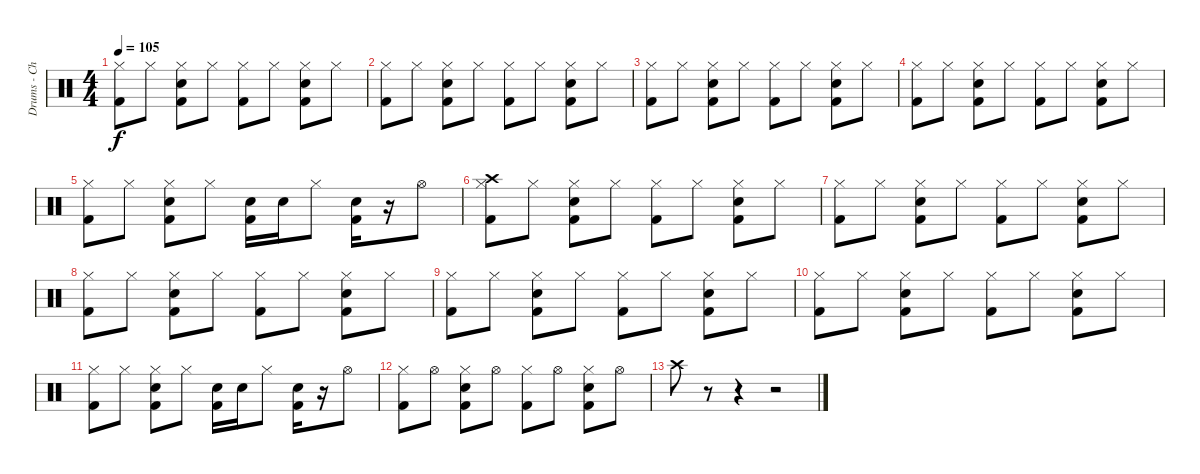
\track ("Drums - Christoph Schneider" "Drums - Ch") {instrument percussion}
\staff {score}
\articulation defaults
\ts (4 4)
\tempo 105
\clef neutral
\ks c
("Hi-Hat (closed)" "Kick (hit) 2").8{dy f} "Hi-Hat (closed)".8 ("Hi-Hat (closed)" "Snare (hit) 2" "Kick (hit) 2").8 "Hi-Hat (closed)".8 ("Hi-Hat (closed)" "Kick (hit) 2").8 "Hi-Hat (closed)".8 ("Hi-Hat (closed)" "Snare (hit) 2" "Kick (hit) 2").8 "Hi-Hat (closed)".8 |
("Hi-Hat (closed)" "Kick (hit) 2").8 "Hi-Hat (closed)".8 ("Hi-Hat (closed)" "Snare (hit) 2" "Kick (hit) 2").8 "Hi-Hat (closed)".8 ("Hi-Hat (closed)" "Kick (hit) 2").8 "Hi-Hat (closed)".8 ("Hi-Hat (closed)" "Snare (hit) 2" "Kick (hit) 2").8 "Hi-Hat (closed)".8 |
("Hi-Hat (closed)" "Kick (hit) 2").8 "Hi-Hat (closed)".8 ("Hi-Hat (closed)" "Snare (hit) 2" "Kick (hit) 2").8 "Hi-Hat (closed)".8 ("Hi-Hat (closed)" "Kick (hit) 2").8 "Hi-Hat (closed)".8 ("Hi-Hat (closed)" "Snare (hit) 2" "Kick (hit) 2").8 "Hi-Hat (closed)".8 |
("Hi-Hat (closed)" "Kick (hit) 2").8 "Hi-Hat (closed)".8 ("Hi-Hat (closed)" "Snare (hit) 2" "Kick (hit) 2").8 "Hi-Hat (closed)".8 ("Hi-Hat (closed)" "Kick (hit) 2").8 "Hi-Hat (closed)".8 ("Hi-Hat (closed)" "Snare (hit) 2" "Kick (hit) 2").8 "Hi-Hat (closed)".8 |
("Hi-Hat (closed)" "Kick (hit) 2").8 "Hi-Hat (closed)".8 ("Hi-Hat (closed)" "Snare (hit) 2" "Kick (hit) 2").8 "Hi-Hat (closed)".8 ("Snare (hit) 2" "Kick (hit) 2").16 "Snare (hit) 2".16 "Hi-Hat (closed)".8 ("Snare (hit) 2" "Kick (hit) 2").16 r.16 "Hi-Hat (open)".8 |
("Crash high (hit)" "Hi-Hat (closed)" "Kick (hit) 2").8 "Hi-Hat (closed)".8 ("Hi-Hat (closed)" "Snare (hit) 2" "Kick (hit) 2").8 "Hi-Hat (closed)".8 ("Hi-Hat (closed)" "Kick (hit) 2").8 "Hi-Hat (closed)".8 ("Hi-Hat (closed)" "Snare (hit) 2" "Kick (hit) 2").8 "Hi-Hat (closed)".8 |
("Hi-Hat (closed)" "Kick (hit) 2").8 "Hi-Hat (closed)".8 ("Hi-Hat (closed)" "Snare (hit) 2" "Kick (hit) 2").8 "Hi-Hat (closed)".8 ("Hi-Hat (closed)" "Kick (hit) 2").8 "Hi-Hat (closed)".8 ("Hi-Hat (closed)" "Snare (hit) 2" "Kick (hit) 2").8 "Hi-Hat (closed)".8 |
("Hi-Hat (closed)" "Kick (hit) 2").8 "Hi-Hat (closed)".8 ("Hi-Hat (closed)" "Snare (hit) 2" "Kick (hit) 2").8 "Hi-Hat (closed)".8 ("Hi-Hat (closed)" "Kick (hit) 2").8 "Hi-Hat (closed)".8 ("Hi-Hat (closed)" "Snare (hit) 2" "Kick (hit) 2").8 "Hi-Hat (closed)".8 |
("Hi-Hat (closed)" "Kick (hit) 2").8 "Hi-Hat (closed)".8 ("Hi-Hat (closed)" "Snare (hit) 2" "Kick (hit) 2").8 "Hi-Hat (closed)".8 ("Hi-Hat (closed)" "Kick (hit) 2").8 "Hi-Hat (closed)".8 ("Hi-Hat (closed)" "Snare (hit) 2" "Kick (hit) 2").8 "Hi-Hat (closed)".8 |
("Hi-Hat (closed)" "Kick (hit) 2").8 "Hi-Hat (closed)".8 ("Hi-Hat (closed)" "Snare (hit) 2" "Kick (hit) 2").8 "Hi-Hat (closed)".8 ("Hi-Hat (closed)" "Kick (hit) 2").8 "Hi-Hat (closed)".8 ("Hi-Hat (closed)" "Snare (hit) 2" "Kick (hit) 2").8 "Hi-Hat (closed)".8 |
("Hi-Hat (closed)" "Kick (hit) 2").8 "Hi-Hat (closed)".8 ("Hi-Hat (closed)" "Snare (hit) 2" "Kick (hit) 2").8 "Hi-Hat (closed)".8 ("Snare (hit) 2" "Kick (hit) 2").16 "Snare (hit) 2".16 "Hi-Hat (closed)".8 ("Snare (hit) 2" "Kick (hit) 2").16 r.16 "Hi-Hat (open)".8 |
("Hi-Hat (closed)" "Kick (hit) 2").8 "Hi-Hat (open)".8 ("Hi-Hat (closed)" "Snare (hit) 2" "Kick (hit) 2").8 "Hi-Hat (open)".8 ("Hi-Hat (closed)" "Kick (hit) 2").8 "Hi-Hat (open)".8 ("Hi-Hat (closed)" "Snare (hit) 2" "Kick (hit) 2").8 "Hi-Hat (open)".8 |
"Crash high (hit)".8 r.8 r.4 r.2
